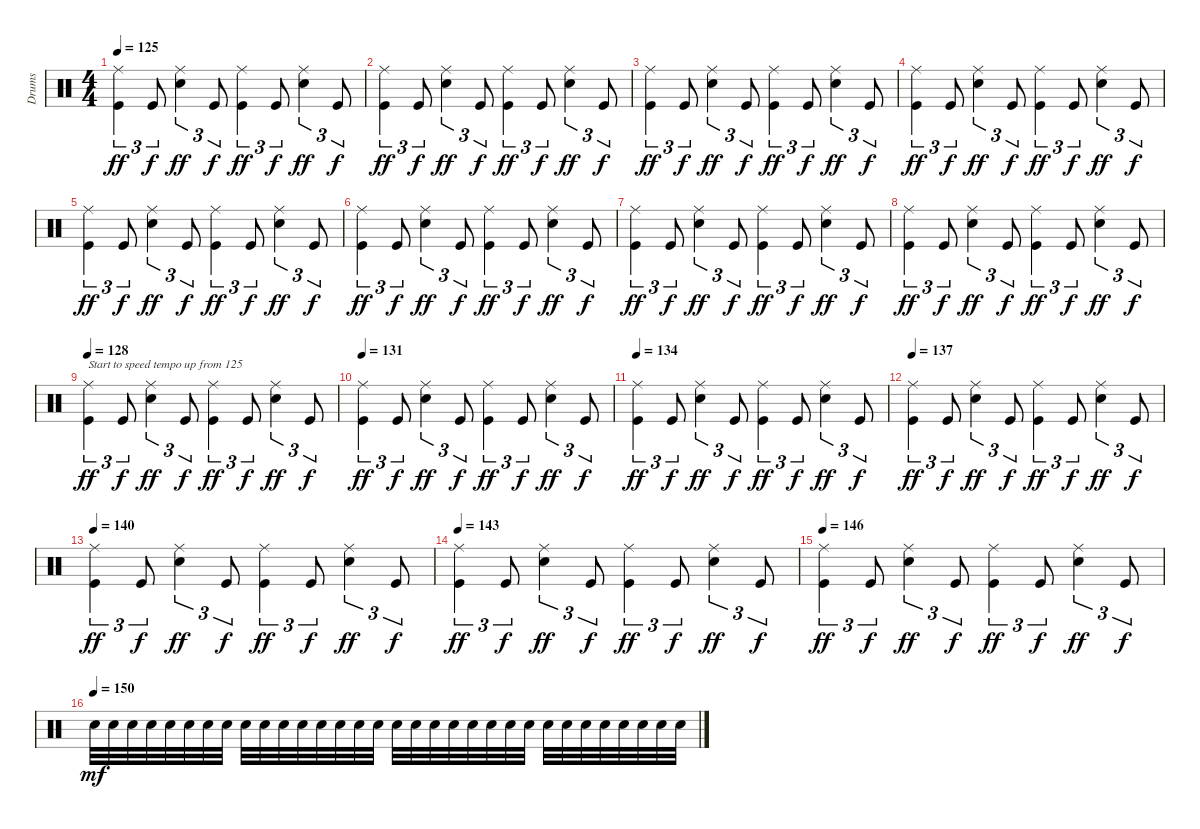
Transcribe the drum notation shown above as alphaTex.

\track ("Drums" "Drums") {instrument percussion}
\staff {score}
\articulation defaults
\ts (4 4)
\tempo 125
\clef neutral
\ks c
("Ride (middle)" "Kick (hit)").4{tu (3 2) dy ff} "Kick (hit)".8{tu (3 2) dy f} ("Ride (middle)" "Snare (hit) 2").4{tu (3 2) dy ff} "Kick (hit)".8{tu (3 2) dy f} ("Ride (middle)" "Kick (hit)").4{tu (3 2) dy ff} "Kick (hit)".8{tu (3 2) dy f} ("Ride (middle)" "Snare (hit) 2").4{tu (3 2) dy ff} "Kick (hit)".8{tu (3 2) dy f} |
("Ride (middle)" "Kick (hit)").4{tu (3 2) dy ff} "Kick (hit)".8{tu (3 2) dy f} ("Ride (middle)" "Snare (hit) 2").4{tu (3 2) dy ff} "Kick (hit)".8{tu (3 2) dy f} ("Ride (middle)" "Kick (hit)").4{tu (3 2) dy ff} "Kick (hit)".8{tu (3 2) dy f} ("Ride (middle)" "Snare (hit) 2").4{tu (3 2) dy ff} "Kick (hit)".8{tu (3 2) dy f} |
("Ride (middle)" "Kick (hit)").4{tu (3 2) dy ff} "Kick (hit)".8{tu (3 2) dy f} ("Ride (middle)" "Snare (hit) 2").4{tu (3 2) dy ff} "Kick (hit)".8{tu (3 2) dy f} ("Ride (middle)" "Kick (hit)").4{tu (3 2) dy ff} "Kick (hit)".8{tu (3 2) dy f} ("Ride (middle)" "Snare (hit) 2").4{tu (3 2) dy ff} "Kick (hit)".8{tu (3 2) dy f} |
("Ride (middle)" "Kick (hit)").4{tu (3 2) dy ff} "Kick (hit)".8{tu (3 2) dy f} ("Ride (middle)" "Snare (hit) 2").4{tu (3 2) dy ff} "Kick (hit)".8{tu (3 2) dy f} ("Ride (middle)" "Kick (hit)").4{tu (3 2) dy ff} "Kick (hit)".8{tu (3 2) dy f} ("Ride (middle)" "Snare (hit) 2").4{tu (3 2) dy ff} "Kick (hit)".8{tu (3 2) dy f} |
("Ride (middle)" "Kick (hit)").4{tu (3 2) dy ff} "Kick (hit)".8{tu (3 2) dy f} ("Ride (middle)" "Snare (hit) 2").4{tu (3 2) dy ff} "Kick (hit)".8{tu (3 2) dy f} ("Ride (middle)" "Kick (hit)").4{tu (3 2) dy ff} "Kick (hit)".8{tu (3 2) dy f} ("Ride (middle)" "Snare (hit) 2").4{tu (3 2) dy ff} "Kick (hit)".8{tu (3 2) dy f} |
("Ride (middle)" "Kick (hit)").4{tu (3 2) dy ff} "Kick (hit)".8{tu (3 2) dy f} ("Ride (middle)" "Snare (hit) 2").4{tu (3 2) dy ff} "Kick (hit)".8{tu (3 2) dy f} ("Ride (middle)" "Kick (hit)").4{tu (3 2) dy ff} "Kick (hit)".8{tu (3 2) dy f} ("Ride (middle)" "Snare (hit) 2").4{tu (3 2) dy ff} "Kick (hit)".8{tu (3 2) dy f} |
("Ride (middle)" "Kick (hit)").4{tu (3 2) dy ff} "Kick (hit)".8{tu (3 2) dy f} ("Ride (middle)" "Snare (hit) 2").4{tu (3 2) dy ff} "Kick (hit)".8{tu (3 2) dy f} ("Ride (middle)" "Kick (hit)").4{tu (3 2) dy ff} "Kick (hit)".8{tu (3 2) dy f} ("Ride (middle)" "Snare (hit) 2").4{tu (3 2) dy ff} "Kick (hit)".8{tu (3 2) dy f} |
("Ride (middle)" "Kick (hit)").4{tu (3 2) dy ff} "Kick (hit)".8{tu (3 2) dy f} ("Ride (middle)" "Snare (hit) 2").4{tu (3 2) dy ff} "Kick (hit)".8{tu (3 2) dy f} ("Ride (middle)" "Kick (hit)").4{tu (3 2) dy ff} "Kick (hit)".8{tu (3 2) dy f} ("Ride (middle)" "Snare (hit) 2").4{tu (3 2) dy ff} "Kick (hit)".8{tu (3 2) dy f} |
\tempo 128
("Ride (middle)" "Kick (hit)").4{tu (3 2) txt "Start to speed tempo up from 125" dy ff} "Kick (hit)".8{tu (3 2) dy f} ("Ride (middle)" "Snare (hit) 2").4{tu (3 2) dy ff} "Kick (hit)".8{tu (3 2) dy f} ("Ride (middle)" "Kick (hit)").4{tu (3 2) dy ff} "Kick (hit)".8{tu (3 2) dy f} ("Ride (middle)" "Snare (hit) 2").4{tu (3 2) dy ff} "Kick (hit)".8{tu (3 2) dy f} |
\tempo 131
("Ride (middle)" "Kick (hit)").4{tu (3 2) dy ff} "Kick (hit)".8{tu (3 2) dy f} ("Ride (middle)" "Snare (hit) 2").4{tu (3 2) dy ff} "Kick (hit)".8{tu (3 2) dy f} ("Ride (middle)" "Kick (hit)").4{tu (3 2) dy ff} "Kick (hit)".8{tu (3 2) dy f} ("Ride (middle)" "Snare (hit) 2").4{tu (3 2) dy ff} "Kick (hit)".8{tu (3 2) dy f} |
\tempo 134
("Ride (middle)" "Kick (hit)").4{tu (3 2) dy ff} "Kick (hit)".8{tu (3 2) dy f} ("Ride (middle)" "Snare (hit) 2").4{tu (3 2) dy ff} "Kick (hit)".8{tu (3 2) dy f} ("Ride (middle)" "Kick (hit)").4{tu (3 2) dy ff} "Kick (hit)".8{tu (3 2) dy f} ("Ride (middle)" "Snare (hit) 2").4{tu (3 2) dy ff} "Kick (hit)".8{tu (3 2) dy f} |
\tempo 137
("Ride (middle)" "Kick (hit)").4{tu (3 2) dy ff} "Kick (hit)".8{tu (3 2) dy f} ("Ride (middle)" "Snare (hit) 2").4{tu (3 2) dy ff} "Kick (hit)".8{tu (3 2) dy f} ("Ride (middle)" "Kick (hit)").4{tu (3 2) dy ff} "Kick (hit)".8{tu (3 2) dy f} ("Ride (middle)" "Snare (hit) 2").4{tu (3 2) dy ff} "Kick (hit)".8{tu (3 2) dy f} |
\tempo 140
("Ride (middle)" "Kick (hit)").4{tu (3 2) dy ff} "Kick (hit)".8{tu (3 2) dy f} ("Ride (middle)" "Snare (hit) 2").4{tu (3 2) dy ff} "Kick (hit)".8{tu (3 2) dy f} ("Ride (middle)" "Kick (hit)").4{tu (3 2) dy ff} "Kick (hit)".8{tu (3 2) dy f} ("Ride (middle)" "Snare (hit) 2").4{tu (3 2) dy ff} "Kick (hit)".8{tu (3 2) dy f} |
\tempo 143
("Ride (middle)" "Kick (hit)").4{tu (3 2) dy ff} "Kick (hit)".8{tu (3 2) dy f} ("Ride (middle)" "Snare (hit) 2").4{tu (3 2) dy ff} "Kick (hit)".8{tu (3 2) dy f} ("Ride (middle)" "Kick (hit)").4{tu (3 2) dy ff} "Kick (hit)".8{tu (3 2) dy f} ("Ride (middle)" "Snare (hit) 2").4{tu (3 2) dy ff} "Kick (hit)".8{tu (3 2) dy f} |
\tempo 146
("Ride (middle)" "Kick (hit)").4{tu (3 2) dy ff} "Kick (hit)".8{tu (3 2) dy f} ("Ride (middle)" "Snare (hit) 2").4{tu (3 2) dy ff} "Kick (hit)".8{tu (3 2) dy f} ("Ride (middle)" "Kick (hit)").4{tu (3 2) dy ff} "Kick (hit)".8{tu (3 2) dy f} ("Ride (middle)" "Snare (hit) 2").4{tu (3 2) dy ff} "Kick (hit)".8{tu (3 2) dy f} |
\tempo (150)
"Snare (hit) 2".32{dy mf} "Snare (hit) 2".32 "Snare (hit) 2".32 "Snare (hit) 2".32 "Snare (hit) 2".32 "Snare (hit) 2".32 "Snare (hit) 2".32 "Snare (hit) 2".32 "Snare (hit) 2".32 "Snare (hit) 2".32 "Snare (hit) 2".32 "Snare (hit) 2".32 "Snare (hit) 2".32 "Snare (hit) 2".32 "Snare (hit) 2".32 "Snare (hit) 2".32 "Snare (hit) 2".32 "Snare (hit) 2".32 "Snare (hit) 2".32 "Snare (hit) 2".32 "Snare (hit) 2".32 "Snare (hit) 2".32 "Snare (hit) 2".32 "Snare (hit) 2".32 "Snare (hit) 2".32 "Snare (hit) 2".32 "Snare (hit) 2".32 "Snare (hit) 2".32 "Snare (hit) 2".32 "Snare (hit) 2".32 "Snare (hit) 2".32 "Snare (hit) 2".32
